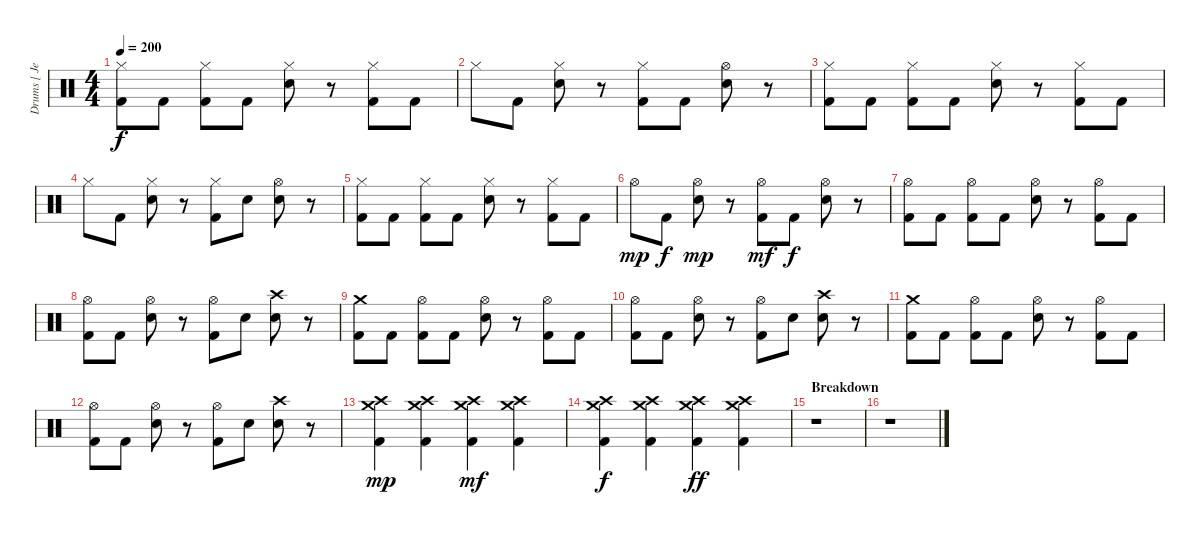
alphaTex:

\track ("Drums [ Jesse Ingelevics ]" "Drums [ Je") {instrument percussion}
\staff {score}
\articulation defaults
\ts (4 4)
\tempo 200
\clef neutral
\ks c
("Hi-Hat (closed)" "Kick (hit) 2").8{dy f} "Kick (hit) 2".8 ("Hi-Hat (closed)" "Kick (hit) 2").8 "Kick (hit) 2".8 ("Hi-Hat (closed)" "Electric Snare (hit)").8 r.8 ("Hi-Hat (closed)" "Kick (hit) 2").8 "Kick (hit) 2".8 |
"Hi-Hat (closed)".8 "Kick (hit) 2".8 ("Hi-Hat (closed)" "Electric Snare (hit)").8 r.8 ("Hi-Hat (closed)" "Kick (hit) 2").8 "Kick (hit) 2".8 ("Hi-Hat (open)" "Electric Snare (hit)").8 r.8 |
("Hi-Hat (closed)" "Kick (hit) 2").8 "Kick (hit) 2".8 ("Hi-Hat (closed)" "Kick (hit) 2").8 "Kick (hit) 2".8 ("Hi-Hat (closed)" "Electric Snare (hit)").8 r.8 ("Hi-Hat (closed)" "Kick (hit) 2").8 "Kick (hit) 2".8 |
"Hi-Hat (closed)".8 "Kick (hit) 2".8 ("Hi-Hat (closed)" "Electric Snare (hit)").8 r.8 ("Hi-Hat (closed)" "Kick (hit) 2").8 "Electric Snare (hit)".8 ("Hi-Hat (open)" "Electric Snare (hit)").8 r.8 |
("Hi-Hat (closed)" "Kick (hit) 2").8 "Kick (hit) 2".8 ("Hi-Hat (closed)" "Kick (hit) 2").8 "Kick (hit) 2".8 ("Hi-Hat (closed)" "Electric Snare (hit)").8 r.8 ("Hi-Hat (closed)" "Kick (hit) 2").8 "Kick (hit) 2".8 |
"Hi-Hat (open)".8{dy mp} "Kick (hit) 2".8{dy f} ("Hi-Hat (open)" "Electric Snare (hit)").8{dy mp} r.8 ("Hi-Hat (open)" "Kick (hit) 2").8{dy mf} "Kick (hit) 2".8{dy f} ("Hi-Hat (open)" "Electric Snare (hit)").8 r.8 |
("Hi-Hat (open)" "Kick (hit) 2").8 "Kick (hit) 2".8 ("Hi-Hat (open)" "Kick (hit) 2").8 "Kick (hit) 2".8 ("Hi-Hat (open)" "Electric Snare (hit)").8 r.8 ("Hi-Hat (open)" "Kick (hit) 2").8 "Kick (hit) 2".8 |
("Hi-Hat (open)" "Kick (hit) 2").8 "Kick (hit) 2".8 ("Hi-Hat (open)" "Electric Snare (hit)").8 r.8 ("Hi-Hat (open)" "Kick (hit) 2").8 "Electric Snare (hit)".8 ("Crash high (hit)" "Electric Snare (hit)").8 r.8 |
("Crash medium (hit)" "Kick (hit) 2").8 "Kick (hit) 2".8 ("Hi-Hat (open)" "Kick (hit) 2").8 "Kick (hit) 2".8 ("Hi-Hat (open)" "Electric Snare (hit)").8 r.8 ("Hi-Hat (open)" "Kick (hit) 2").8 "Kick (hit) 2".8 |
("Hi-Hat (open)" "Kick (hit) 2").8 "Kick (hit) 2".8 ("Hi-Hat (open)" "Electric Snare (hit)").8 r.8 ("Hi-Hat (open)" "Kick (hit) 2").8 "Electric Snare (hit)".8 ("Crash high (hit)" "Electric Snare (hit)").8 r.8 |
("Crash medium (hit)" "Kick (hit) 2").8 "Kick (hit) 2".8 ("Hi-Hat (open)" "Kick (hit) 2").8 "Kick (hit) 2".8 ("Hi-Hat (open)" "Electric Snare (hit)").8 r.8 ("Hi-Hat (open)" "Kick (hit) 2").8 "Kick (hit) 2".8 |
("Hi-Hat (open)" "Kick (hit) 2").8 "Kick (hit) 2".8 ("Hi-Hat (open)" "Electric Snare (hit)").8 r.8 ("Hi-Hat (open)" "Kick (hit) 2").8 "Electric Snare (hit)".8 ("Crash high (hit)" "Electric Snare (hit)").8 r.8 |
("Crash high (hit)" "Crash medium (hit)" "Kick (hit) 2").4{dy mp} ("Crash high (hit)" "Crash medium (hit)" "Kick (hit) 2").4 ("Crash high (hit)" "Crash medium (hit)" "Kick (hit) 2").4{dy mf} ("Crash high (hit)" "Crash medium (hit)" "Kick (hit) 2").4 |
("Crash high (hit)" "Crash medium (hit)" "Kick (hit) 2").4{dy f} ("Crash high (hit)" "Crash medium (hit)" "Kick (hit) 2").4 ("Crash high (hit)" "Crash medium (hit)" "Kick (hit) 2").4{dy ff} ("Crash high (hit)" "Crash medium (hit)" "Kick (hit) 2").4 |
\section ("" "Breakdown")
r.1 |
r.1
